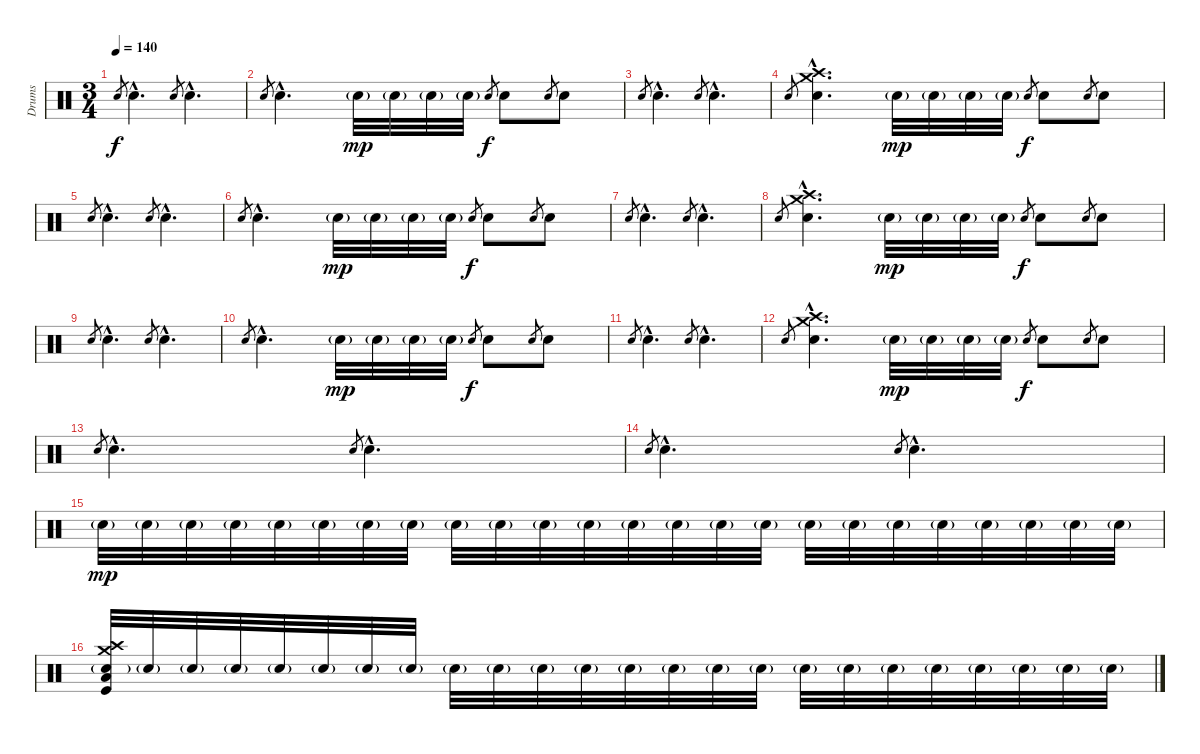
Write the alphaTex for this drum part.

\track ("Drums" "Drums") {instrument percussion}
\staff {score}
\articulation defaults
\ts (3 4)
\tempo 140
\clef neutral
\ks c "Snare (hit) 2".8{gr dy f} "Snare (hit) 2"{hac}.4{d} "Snare (hit) 2".8{gr} "Snare (hit) 2"{hac}.4{d}
|
"Snare (hit) 2".8{gr} "Snare (hit) 2"{hac}.4{d} "Snare (hit) 2"{g}.32{dy mp} "Snare (hit) 2"{g}.32 "Snare (hit) 2"{g}.32 "Snare (hit) 2"{g}.32 "Snare (hit) 2".8{gr dy f} "Snare (hit) 2".8 "Snare (hit) 2".8{gr} "Snare (hit) 2".8 |
"Snare (hit) 2".8{gr} "Snare (hit) 2"{hac}.4{d} "Snare (hit) 2".8{gr} "Snare (hit) 2"{hac}.4{d} |
"Snare (hit) 2".8{gr} ("Crash high (hit)"{hac} "Crash medium (hit)"{hac} "Snare (hit) 2"{hac}).4{d} "Snare (hit) 2"{g}.32{dy mp} "Snare (hit) 2"{g}.32 "Snare (hit) 2"{g}.32 "Snare (hit) 2"{g}.32 "Snare (hit) 2".8{gr dy f} "Snare (hit) 2".8 "Snare (hit) 2".8{gr} "Snare (hit) 2".8 |
"Snare (hit) 2".8{gr} "Snare (hit) 2"{hac}.4{d} "Snare (hit) 2".8{gr} "Snare (hit) 2"{hac}.4{d} |
"Snare (hit) 2".8{gr} "Snare (hit) 2"{hac}.4{d} "Snare (hit) 2"{g}.32{dy mp} "Snare (hit) 2"{g}.32 "Snare (hit) 2"{g}.32 "Snare (hit) 2"{g}.32 "Snare (hit) 2".8{gr dy f} "Snare (hit) 2".8 "Snare (hit) 2".8{gr} "Snare (hit) 2".8 |
"Snare (hit) 2".8{gr} "Snare (hit) 2"{hac}.4{d} "Snare (hit) 2".8{gr} "Snare (hit) 2"{hac}.4{d} |
"Snare (hit) 2".8{gr} ("Crash high (hit)"{hac} "Crash medium (hit)"{hac} "Snare (hit) 2"{hac}).4{d} "Snare (hit) 2"{g}.32{dy mp} "Snare (hit) 2"{g}.32 "Snare (hit) 2"{g}.32 "Snare (hit) 2"{g}.32 "Snare (hit) 2".8{gr dy f} "Snare (hit) 2".8 "Snare (hit) 2".8{gr} "Snare (hit) 2".8 |
"Snare (hit) 2".8{gr} "Snare (hit) 2"{hac}.4{d} "Snare (hit) 2".8{gr} "Snare (hit) 2"{hac}.4{d} |
"Snare (hit) 2".8{gr} "Snare (hit) 2"{hac}.4{d} "Snare (hit) 2"{g}.32{dy mp} "Snare (hit) 2"{g}.32 "Snare (hit) 2"{g}.32 "Snare (hit) 2"{g}.32 "Snare (hit) 2".8{gr dy f} "Snare (hit) 2".8 "Snare (hit) 2".8{gr} "Snare (hit) 2".8 |
"Snare (hit) 2".8{gr} "Snare (hit) 2"{hac}.4{d} "Snare (hit) 2".8{gr} "Snare (hit) 2"{hac}.4{d} |
"Snare (hit) 2".8{gr} ("Crash high (hit)"{hac} "Crash medium (hit)"{hac} "Snare (hit) 2"{hac}).4{d} "Snare (hit) 2"{g}.32{dy mp} "Snare (hit) 2"{g}.32 "Snare (hit) 2"{g}.32 "Snare (hit) 2"{g}.32 "Snare (hit) 2".8{gr dy f} "Snare (hit) 2".8 "Snare (hit) 2".8{gr} "Snare (hit) 2".8 |
"Snare (hit) 2".8{gr} "Snare (hit) 2"{hac}.4{d} "Snare (hit) 2".8{gr} "Snare (hit) 2"{hac}.4{d} |
"Snare (hit) 2".8{gr} "Snare (hit) 2"{hac}.4{d} "Snare (hit) 2".8{gr} "Snare (hit) 2"{hac}.4{d} |
"Snare (hit) 2"{g}.32{dy mp} "Snare (hit) 2"{g}.32 "Snare (hit) 2"{g}.32 "Snare (hit) 2"{g}.32 "Snare (hit) 2"{g}.32 "Snare (hit) 2"{g}.32 "Snare (hit) 2"{g}.32 "Snare (hit) 2"{g}.32 "Snare (hit) 2"{g}.32 "Snare (hit) 2"{g}.32 "Snare (hit) 2"{g}.32 "Snare (hit) 2"{g}.32 "Snare (hit) 2"{g}.32 "Snare (hit) 2"{g}.32 "Snare (hit) 2"{g}.32 "Snare (hit) 2"{g}.32 "Snare (hit) 2"{g}.32 "Snare (hit) 2"{g}.32 "Snare (hit) 2"{g}.32 "Snare (hit) 2"{g}.32 "Snare (hit) 2"{g}.32 "Snare (hit) 2"{g}.32 "Snare (hit) 2"{g}.32 "Snare (hit) 2"{g}.32 |
("Crash high (hit)" "Crash medium (hit)" "Snare (hit) 2"{g} "Low Floor Tom (hit)" "Kick (hit)").32 "Snare (hit) 2"{g}.32 "Snare (hit) 2"{g}.32 "Snare (hit) 2"{g}.32 "Snare (hit) 2"{g}.32 "Snare (hit) 2"{g}.32 "Snare (hit) 2"{g}.32 "Snare (hit) 2"{g}.32 "Snare (hit) 2"{g}.32 "Snare (hit) 2"{g}.32 "Snare (hit) 2"{g}.32 "Snare (hit) 2"{g}.32 "Snare (hit) 2"{g}.32 "Snare (hit) 2"{g}.32 "Snare (hit) 2"{g}.32 "Snare (hit) 2"{g}.32 "Snare (hit) 2"{g}.32 "Snare (hit) 2"{g}.32 "Snare (hit) 2"{g}.32 "Snare (hit) 2"{g}.32 "Snare (hit) 2"{g}.32 "Snare (hit) 2"{g}.32 "Snare (hit) 2"{g}.32 "Snare (hit) 2"{g}.32
